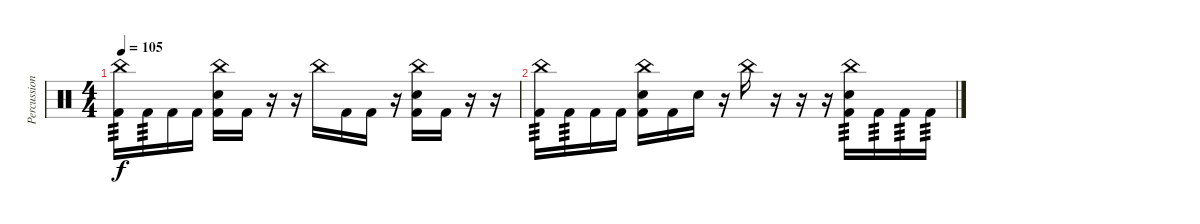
\track ("Percussion" "Percussion") {instrument percussion}
\staff {score}
\articulation defaults
\ts (4 4)
\tempo 105
\clef neutral
\ks c
("China (hit)" "Kick (hit) 2").16{tp 3 dy f} "Kick (hit) 2".16{tp 3} "Kick (hit) 2".16 "Kick (hit) 2".16 ("China (hit)" "Electric Snare (hit)" "Kick (hit) 2").16 "Kick (hit) 2".16 r.16 r.16 "China (hit)".16 "Kick (hit) 2".16 "Kick (hit) 2".16 r.16 ("China (hit)" "Electric Snare (hit)" "Kick (hit) 2").16 "Kick (hit) 2".16 r.16 r.16 |
("China (hit)" "Kick (hit) 2").16{tp 3} "Kick (hit) 2".16{tp 3} "Kick (hit) 2".16 "Kick (hit) 2".16 ("China (hit)" "Electric Snare (hit)" "Kick (hit) 2").16 "Kick (hit) 2".16 "Electric Snare (hit)".16 r.16 "China (hit)".16 r.16 r.16 r.16 ("China (hit)" "Electric Snare (hit)" "Kick (hit) 2").16{tp 3} "Kick (hit) 2".16{tp 3} "Kick (hit) 2".16{tp 3} "Kick (hit) 2".16{tp 3}
